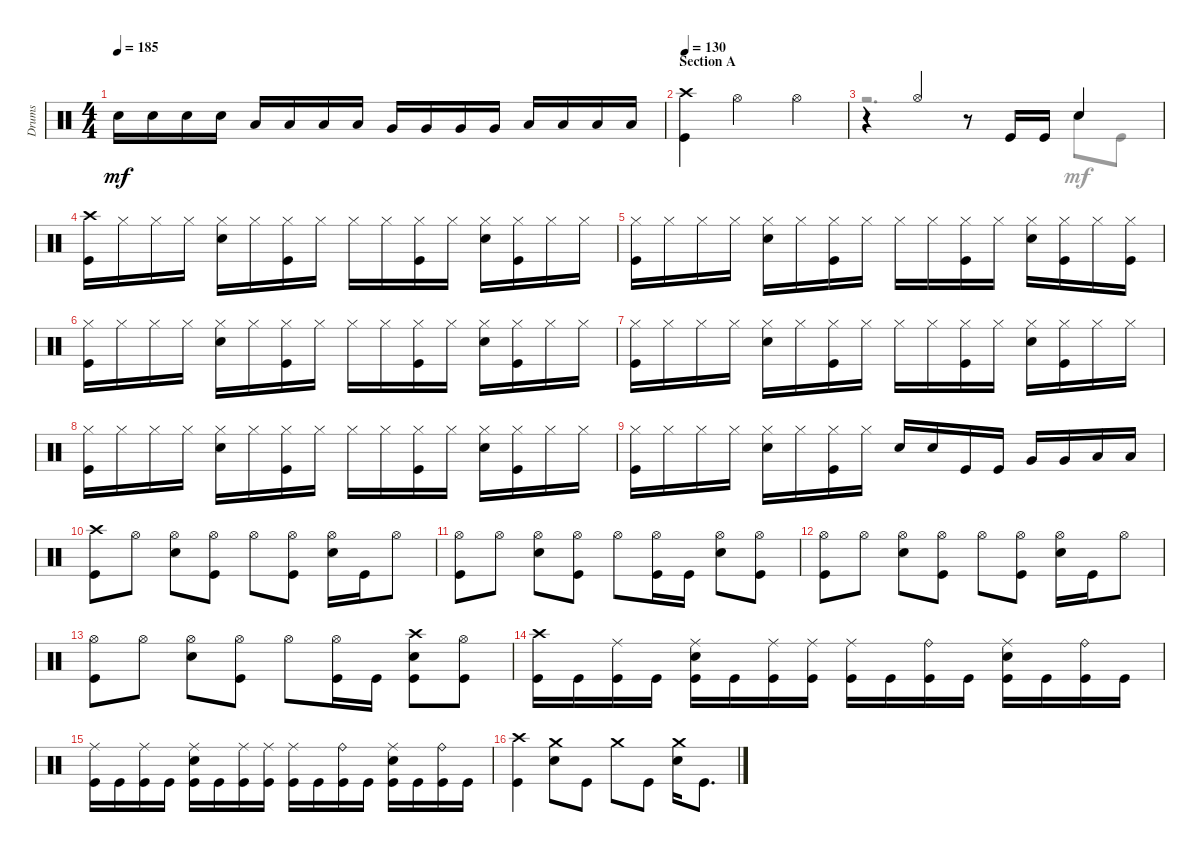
\track ("Drums" "Drums") {instrument percussion}
\staff {score}
\articulation defaults
\voice
\ts (4 4)
\tempo 185
\clef neutral
\ks aminor "Snare (hit) 2".16{dy mf} "Snare (hit) 2".16 "Snare (hit) 2".16 "Snare (hit) 2".16 "Low Tom (hit)".16 "Low Tom (hit)".16 "Low Tom (hit)".16 "Low Tom (hit)".16 "Very Low Tom (hit)".16 "Very Low Tom (hit)".16 "Very Low Tom (hit)".16 "Very Low Tom (hit)".16 "Low Floor Tom (hit)".16 "Low Floor Tom (hit)".16 "Low Floor Tom (hit)".16 "Low Floor Tom (hit)".16
|
\section ("" "Section A")
\tempo 130
("Crash high (hit)" "Kick (hit)").4 "Hi-Hat (open)".2 "Hi-Hat (open)".4 |
r.4 "Hi-Hat (open)".4 r.8 "Kick (hit)".16 "Kick (hit)".16 "Snare (hit) 2".4 |
("Kick (hit)" "Crash high (hit)").16 "Hi-Hat (closed)".16 "Hi-Hat (closed)".16 "Hi-Hat (closed)".16 ("Snare (hit) 2" "Hi-Hat (closed)").16 "Hi-Hat (closed)".16 ("Hi-Hat (closed)" "Kick (hit)").16 "Hi-Hat (closed)".16 "Hi-Hat (closed)".16 "Hi-Hat (closed)".16 ("Kick (hit)" "Hi-Hat (closed)").16 "Hi-Hat (closed)".16 ("Snare (hit) 2" "Hi-Hat (closed)").16 ("Kick (hit)" "Hi-Hat (closed)").16 "Hi-Hat (closed)".16 "Hi-Hat (closed)".16 |
("Hi-Hat (closed)" "Kick (hit)").16 "Hi-Hat (closed)".16 "Hi-Hat (closed)".16 "Hi-Hat (closed)".16 ("Hi-Hat (closed)" "Snare (hit) 2").16 "Hi-Hat (closed)".16 ("Kick (hit)" "Hi-Hat (closed)").16 "Hi-Hat (closed)".16 "Hi-Hat (closed)".16 "Hi-Hat (closed)".16 ("Hi-Hat (closed)" "Kick (hit)").16 "Hi-Hat (closed)".16 ("Snare (hit) 2" "Hi-Hat (closed)").16 ("Hi-Hat (closed)" "Kick (hit)").16 "Hi-Hat (closed)".16 ("Hi-Hat (closed)" "Kick (hit)").16 |
("Kick (hit)" "Hi-Hat (closed)").16 "Hi-Hat (closed)".16 "Hi-Hat (closed)".16 "Hi-Hat (closed)".16 ("Snare (hit) 2" "Hi-Hat (closed)").16 "Hi-Hat (closed)".16 ("Hi-Hat (closed)" "Kick (hit)").16 "Hi-Hat (closed)".16 "Hi-Hat (closed)".16 "Hi-Hat (closed)".16 ("Kick (hit)" "Hi-Hat (closed)").16 "Hi-Hat (closed)".16 ("Hi-Hat (closed)" "Snare (hit) 2").16 ("Hi-Hat (closed)" "Kick (hit)").16 "Hi-Hat (closed)".16 "Hi-Hat (closed)".16 |
("Kick (hit)" "Hi-Hat (closed)").16 "Hi-Hat (closed)".16 "Hi-Hat (closed)".16 "Hi-Hat (closed)".16 ("Hi-Hat (closed)" "Snare (hit) 2").16 "Hi-Hat (closed)".16 ("Hi-Hat (closed)" "Kick (hit)").16 "Hi-Hat (closed)".16 "Hi-Hat (closed)".16 "Hi-Hat (closed)".16 ("Kick (hit)" "Hi-Hat (closed)").16 "Hi-Hat (closed)".16 ("Hi-Hat (closed)" "Snare (hit) 2").16 ("Hi-Hat (closed)" "Kick (hit)").16 "Hi-Hat (closed)".16 "Hi-Hat (closed)".16 |
("Kick (hit)" "Hi-Hat (closed)").16 "Hi-Hat (closed)".16 "Hi-Hat (closed)".16 "Hi-Hat (closed)".16 ("Snare (hit) 2" "Hi-Hat (closed)").16 "Hi-Hat (closed)".16 ("Kick (hit)" "Hi-Hat (closed)").16 "Hi-Hat (closed)".16 "Hi-Hat (closed)".16 "Hi-Hat (closed)".16 ("Kick (hit)" "Hi-Hat (closed)").16 "Hi-Hat (closed)".16 ("Hi-Hat (closed)" "Snare (hit) 2").16 ("Kick (hit)" "Hi-Hat (closed)").16 "Hi-Hat (closed)".16 "Hi-Hat (closed)".16 |
("Hi-Hat (closed)" "Kick (hit)").16 "Hi-Hat (closed)".16 "Hi-Hat (closed)".16 "Hi-Hat (closed)".16 ("Snare (hit) 2" "Hi-Hat (closed)").16 "Hi-Hat (closed)".16 ("Kick (hit)" "Hi-Hat (closed)").16 "Hi-Hat (closed)".16 "Snare (hit) 2".16 "Snare (hit) 2".16 "Kick (hit)".16 "Kick (hit)".16 "Very Low Tom (hit)".16 "Very Low Tom (hit)".16 "Low Floor Tom (hit)".16 "Low Floor Tom (hit)".16 |
("Kick (hit)" "Crash high (hit)").8 "Hi-Hat (open)".8 ("Hi-Hat (open)" "Snare (hit) 2").8 ("Hi-Hat (open)" "Kick (hit)").8 "Hi-Hat (open)".8 ("Kick (hit)" "Hi-Hat (open)").8 ("Snare (hit) 2" "Hi-Hat (open)").16 "Kick (hit)".16 "Hi-Hat (open)".8 |
("Kick (hit)" "Hi-Hat (open)").8 "Hi-Hat (open)".8 ("Hi-Hat (open)" "Snare (hit) 2").8 ("Kick (hit)" "Hi-Hat (open)").8 "Hi-Hat (open)".8 ("Kick (hit)" "Hi-Hat (open)").16 "Kick (hit)".16 ("Hi-Hat (open)" "Snare (hit) 2").8 ("Kick (hit)" "Hi-Hat (open)").8 |
("Kick (hit)" "Hi-Hat (open)").8 "Hi-Hat (open)".8 ("Snare (hit) 2" "Hi-Hat (open)").8 ("Kick (hit)" "Hi-Hat (open)").8 "Hi-Hat (open)".8 ("Kick (hit)" "Hi-Hat (open)").8 ("Hi-Hat (open)" "Snare (hit) 2").16 "Kick (hit)".16 "Hi-Hat (open)".8 |
("Hi-Hat (open)" "Kick (hit)").8 "Hi-Hat (open)".8 ("Snare (hit) 2" "Hi-Hat (open)").8 ("Kick (hit)" "Hi-Hat (open)").8 "Hi-Hat (open)".8 ("Kick (hit)" "Hi-Hat (open)").16 "Kick (hit)".16 ("Kick (hit)" "Snare (hit) 2" "Crash high (hit)").8 ("Kick (hit)" "Hi-Hat (open)").8 |
("Kick (hit)" "Crash high (hit)").16 "Kick (hit)".16 ("Ride (middle)" "Kick (hit)").16 "Kick (hit)".16 ("Kick (hit)" "Ride (middle)" "Snare (hit) 2").16 "Kick (hit)".16 ("Kick (hit)" "Ride (middle)").16 ("Ride (middle)" "Kick (hit)").16 ("Kick (hit)" "Ride (middle)").16 "Kick (hit)".16 ("Ride (bell)" "Kick (hit)").16 "Kick (hit)".16 ("Kick (hit)" "Ride (middle)" "Snare (hit) 2").16 "Kick (hit)".16 ("Ride (bell)" "Kick (hit)").16 "Kick (hit)".16 |
("Ride (middle)" "Kick (hit)").16 "Kick (hit)".16 ("Kick (hit)" "Ride (middle)").16 "Kick (hit)".16 ("Ride (middle)" "Snare (hit) 2" "Kick (hit)").16 "Kick (hit)".16 ("Ride (middle)" "Kick (hit)").16 ("Ride (middle)" "Kick (hit)").16 ("Kick (hit)" "Ride (middle)").16 "Kick (hit)".16 ("Kick (hit)" "Ride (bell)").16 "Kick (hit)".16 ("Ride (middle)" "Snare (hit) 2" "Kick (hit)").16 "Kick (hit)".16 ("Ride (bell)" "Kick (hit)").16 "Kick (hit)".16 |
("Kick (hit)" "Crash high (hit)").4 ("Snare (hit) 2" "Crash medium (hit)").8 "Kick (hit)".8 "Crash medium (hit)".8 "Kick (hit)".8 ("Snare (hit) 2" "Crash medium (hit)").16 "Kick (hit)".8{d}
\voice
\clef neutral
\ottava regular
\simile none
\ks aminor
|
|
r.2{d} "Snare (hit) 2".8 "Kick (hit)".8 |
|
|
|
|
|
|
|
|
|
|
|
|
